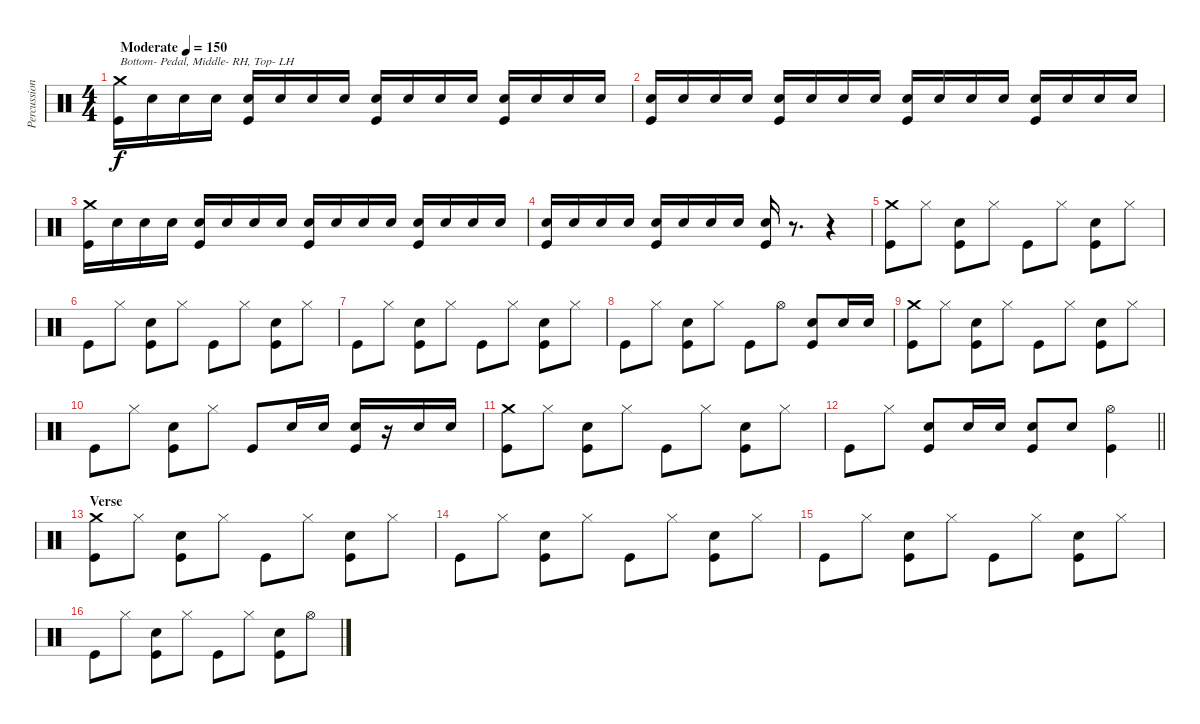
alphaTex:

\track ("Percussion" "Percussion") {instrument percussion}
\staff {score}
\articulation defaults
\ts (4 4)
\tempo (150 "Moderate")
\clef neutral
\ks c
("Crash medium (hit)" "Kick (hit)").16{txt "Bottom- Pedal, Middle- RH, Top- LH" dy f} "Snare (hit) 2".16 "Snare (hit) 2".16 "Snare (hit) 2".16 ("Snare (hit) 2" "Kick (hit)").16 "Snare (hit) 2".16 "Snare (hit) 2".16 "Snare (hit) 2".16 ("Snare (hit) 2" "Kick (hit)").16 "Snare (hit) 2".16 "Snare (hit) 2".16 "Snare (hit) 2".16 ("Snare (hit) 2" "Kick (hit)").16 "Snare (hit) 2".16 "Snare (hit) 2".16 "Snare (hit) 2".16 |
("Snare (hit) 2" "Kick (hit)").16 "Snare (hit) 2".16 "Snare (hit) 2".16 "Snare (hit) 2".16 ("Snare (hit) 2" "Kick (hit)").16 "Snare (hit) 2".16 "Snare (hit) 2".16 "Snare (hit) 2".16 ("Snare (hit) 2" "Kick (hit)").16 "Snare (hit) 2".16 "Snare (hit) 2".16 "Snare (hit) 2".16 ("Snare (hit) 2" "Kick (hit)").16 "Snare (hit) 2".16 "Snare (hit) 2".16 "Snare (hit) 2".16 |
("Crash medium (hit)" "Kick (hit)").16 "Snare (hit) 2".16 "Snare (hit) 2".16 "Snare (hit) 2".16 ("Snare (hit) 2" "Kick (hit)").16 "Snare (hit) 2".16 "Snare (hit) 2".16 "Snare (hit) 2".16 ("Snare (hit) 2" "Kick (hit)").16 "Snare (hit) 2".16 "Snare (hit) 2".16 "Snare (hit) 2".16 ("Snare (hit) 2" "Kick (hit)").16 "Snare (hit) 2".16 "Snare (hit) 2".16 "Snare (hit) 2".16 |
("Snare (hit) 2" "Kick (hit)").16 "Snare (hit) 2".16 "Snare (hit) 2".16 "Snare (hit) 2".16 ("Snare (hit) 2" "Kick (hit)").16 "Snare (hit) 2".16 "Snare (hit) 2".16 "Snare (hit) 2".16 ("Snare (hit) 2" "Kick (hit)").16 r.8{d} r.4 |
("Crash medium (hit)" "Kick (hit)").8 "Hi-Hat (closed)".8 ("Snare (hit) 2" "Kick (hit)").8 "Hi-Hat (closed)".8 "Kick (hit)".8 "Hi-Hat (closed)".8 ("Snare (hit) 2" "Kick (hit)").8 "Hi-Hat (closed)".8 |
"Kick (hit)".8 "Hi-Hat (closed)".8 ("Snare (hit) 2" "Kick (hit)").8 "Hi-Hat (closed)".8 "Kick (hit)".8 "Hi-Hat (closed)".8 ("Snare (hit) 2" "Kick (hit)").8 "Hi-Hat (closed)".8 |
"Kick (hit)".8 "Hi-Hat (closed)".8 ("Snare (hit) 2" "Kick (hit)").8 "Hi-Hat (closed)".8 "Kick (hit)".8 "Hi-Hat (closed)".8 ("Snare (hit) 2" "Kick (hit)").8 "Hi-Hat (closed)".8 |
"Kick (hit)".8 "Hi-Hat (closed)".8 ("Snare (hit) 2" "Kick (hit)").8 "Hi-Hat (closed)".8 "Kick (hit)".8 "Hi-Hat (open)".8 ("Snare (hit) 2" "Kick (hit)").8 "Snare (hit) 2".16 "Snare (hit) 2".16 |
("Crash medium (hit)" "Kick (hit)").8 "Hi-Hat (closed)".8 ("Snare (hit) 2" "Kick (hit)").8 "Hi-Hat (closed)".8 "Kick (hit)".8 "Hi-Hat (closed)".8 ("Snare (hit) 2" "Kick (hit)").8 "Hi-Hat (closed)".8 |
"Kick (hit)".8 "Hi-Hat (closed)".8 ("Snare (hit) 2" "Kick (hit)").8 "Hi-Hat (closed)".8 "Kick (hit)".8 "Snare (hit) 2".16 "Snare (hit) 2".16 ("Snare (hit) 2" "Kick (hit)").16 r.16 "Snare (hit) 2".16 "Snare (hit) 2".16 |
("Crash medium (hit)" "Kick (hit)").8 "Hi-Hat (closed)".8 ("Snare (hit) 2" "Kick (hit)").8 "Hi-Hat (closed)".8 "Kick (hit)".8 "Hi-Hat (closed)".8 ("Snare (hit) 2" "Kick (hit)").8 "Hi-Hat (closed)".8 |
\barLineRight lightlight "Kick (hit)".8 "Hi-Hat (closed)".8
("Snare (hit) 2" "Kick (hit)").8 "Snare (hit) 2".16 "Snare (hit) 2".16 ("Snare (hit) 2" "Kick (hit)").8 "Snare (hit) 2".8 ("Hi-Hat (open)" "Kick (hit)").4 |
\section ("" "Verse")
("Crash medium (hit)" "Kick (hit)").8 "Hi-Hat (closed)".8 ("Snare (hit) 2" "Kick (hit)").8 "Hi-Hat (closed)".8 "Kick (hit)".8 "Hi-Hat (closed)".8 ("Snare (hit) 2" "Kick (hit)").8 "Hi-Hat (closed)".8 |
"Kick (hit)".8 "Hi-Hat (closed)".8 ("Snare (hit) 2" "Kick (hit)").8 "Hi-Hat (closed)".8 "Kick (hit)".8 "Hi-Hat (closed)".8 ("Snare (hit) 2" "Kick (hit)").8 "Hi-Hat (closed)".8 |
"Kick (hit)".8 "Hi-Hat (closed)".8 ("Snare (hit) 2" "Kick (hit)").8 "Hi-Hat (closed)".8 "Kick (hit)".8 "Hi-Hat (closed)".8 ("Snare (hit) 2" "Kick (hit)").8 "Hi-Hat (closed)".8 |
"Kick (hit)".8 "Hi-Hat (closed)".8 ("Snare (hit) 2" "Kick (hit)").8 "Hi-Hat (closed)".8 "Kick (hit)".8 "Hi-Hat (closed)".8 ("Snare (hit) 2" "Kick (hit)").8 "Hi-Hat (open)".8
